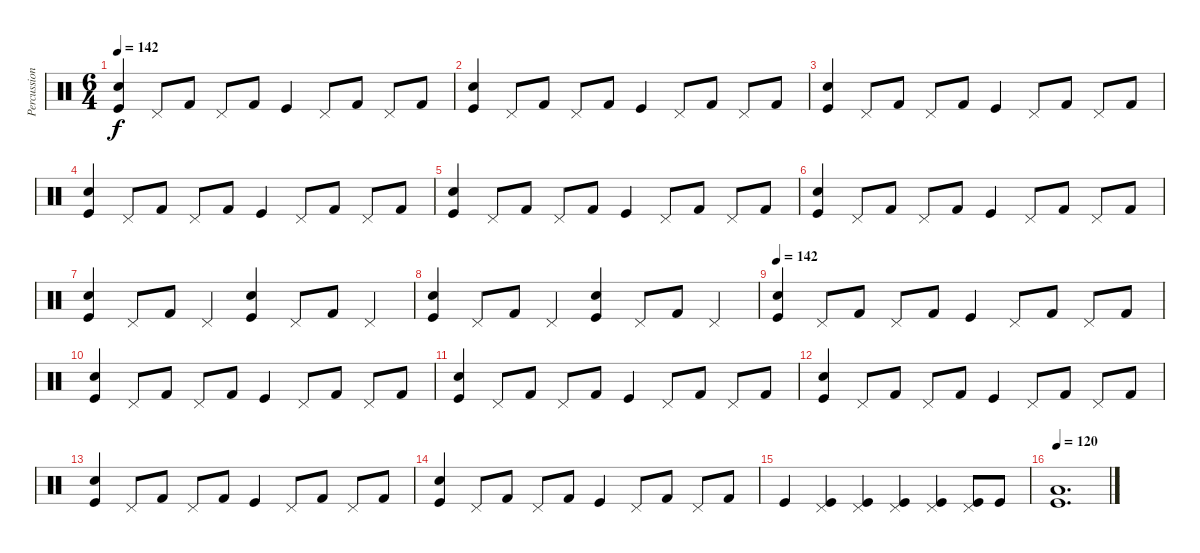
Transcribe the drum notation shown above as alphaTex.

\track ("Percussion" "Percussion") {instrument percussion}
\staff {score}
\articulation defaults
\ts (6 4)
\tempo 142
\clef neutral
\ks c
("Kick (hit)" "Snare (hit) 2").4{dy f} "Pedal Hi-Hat (hit)".8 "Kick (hit) 2".8 "Pedal Hi-Hat (hit)".8 "Kick (hit) 2".8 "Kick (hit)".4 "Pedal Hi-Hat (hit)".8 "Kick (hit) 2".8 "Pedal Hi-Hat (hit)".8 "Kick (hit) 2".8 |
("Kick (hit)" "Snare (hit) 2").4 "Pedal Hi-Hat (hit)".8 "Kick (hit) 2".8 "Pedal Hi-Hat (hit)".8 "Kick (hit) 2".8 "Kick (hit)".4 "Pedal Hi-Hat (hit)".8 "Kick (hit) 2".8 "Pedal Hi-Hat (hit)".8 "Kick (hit) 2".8 |
("Kick (hit)" "Snare (hit) 2").4 "Pedal Hi-Hat (hit)".8 "Kick (hit) 2".8 "Pedal Hi-Hat (hit)".8 "Kick (hit) 2".8 "Kick (hit)".4 "Pedal Hi-Hat (hit)".8 "Kick (hit) 2".8 "Pedal Hi-Hat (hit)".8 "Kick (hit) 2".8 |
("Kick (hit)" "Snare (hit) 2").4 "Pedal Hi-Hat (hit)".8 "Kick (hit) 2".8 "Pedal Hi-Hat (hit)".8 "Kick (hit) 2".8 "Kick (hit)".4 "Pedal Hi-Hat (hit)".8 "Kick (hit) 2".8 "Pedal Hi-Hat (hit)".8 "Kick (hit) 2".8 |
("Kick (hit)" "Snare (hit) 2").4 "Pedal Hi-Hat (hit)".8 "Kick (hit) 2".8 "Pedal Hi-Hat (hit)".8 "Kick (hit) 2".8 "Kick (hit)".4 "Pedal Hi-Hat (hit)".8 "Kick (hit) 2".8 "Pedal Hi-Hat (hit)".8 "Kick (hit) 2".8 |
("Kick (hit)" "Snare (hit) 2").4 "Pedal Hi-Hat (hit)".8 "Kick (hit) 2".8 "Pedal Hi-Hat (hit)".8 "Kick (hit) 2".8 "Kick (hit)".4 "Pedal Hi-Hat (hit)".8 "Kick (hit) 2".8 "Pedal Hi-Hat (hit)".8 "Kick (hit) 2".8 |
("Kick (hit)" "Snare (hit) 2").4 "Pedal Hi-Hat (hit)".8 "Kick (hit) 2".8 "Pedal Hi-Hat (hit)".4 ("Kick (hit)" "Snare (hit) 2").4 "Pedal Hi-Hat (hit)".8 "Kick (hit) 2".8 "Pedal Hi-Hat (hit)".4 |
("Kick (hit)" "Snare (hit) 2").4 "Pedal Hi-Hat (hit)".8 "Kick (hit) 2".8 "Pedal Hi-Hat (hit)".4 ("Kick (hit)" "Snare (hit) 2").4 "Pedal Hi-Hat (hit)".8 "Kick (hit) 2".8 "Pedal Hi-Hat (hit)".4 |
\tempo 142
("Kick (hit)" "Snare (hit) 2").4 "Pedal Hi-Hat (hit)".8 "Kick (hit) 2".8 "Pedal Hi-Hat (hit)".8 "Kick (hit) 2".8 "Kick (hit)".4 "Pedal Hi-Hat (hit)".8 "Kick (hit) 2".8 "Pedal Hi-Hat (hit)".8 "Kick (hit) 2".8 |
("Kick (hit)" "Snare (hit) 2").4 "Pedal Hi-Hat (hit)".8 "Kick (hit) 2".8 "Pedal Hi-Hat (hit)".8 "Kick (hit) 2".8 "Kick (hit)".4 "Pedal Hi-Hat (hit)".8 "Kick (hit) 2".8 "Pedal Hi-Hat (hit)".8 "Kick (hit) 2".8 |
("Kick (hit)" "Snare (hit) 2").4 "Pedal Hi-Hat (hit)".8 "Kick (hit) 2".8 "Pedal Hi-Hat (hit)".8 "Kick (hit) 2".8 "Kick (hit)".4 "Pedal Hi-Hat (hit)".8 "Kick (hit) 2".8 "Pedal Hi-Hat (hit)".8 "Kick (hit) 2".8 |
("Kick (hit)" "Snare (hit) 2").4 "Pedal Hi-Hat (hit)".8 "Kick (hit) 2".8 "Pedal Hi-Hat (hit)".8 "Kick (hit) 2".8 "Kick (hit)".4 "Pedal Hi-Hat (hit)".8 "Kick (hit) 2".8 "Pedal Hi-Hat (hit)".8 "Kick (hit) 2".8 |
("Kick (hit)" "Snare (hit) 2").4 "Pedal Hi-Hat (hit)".8 "Kick (hit) 2".8 "Pedal Hi-Hat (hit)".8 "Kick (hit) 2".8 "Kick (hit)".4 "Pedal Hi-Hat (hit)".8 "Kick (hit) 2".8 "Pedal Hi-Hat (hit)".8 "Kick (hit) 2".8 |
("Kick (hit)" "Snare (hit) 2").4 "Pedal Hi-Hat (hit)".8 "Kick (hit) 2".8 "Pedal Hi-Hat (hit)".8 "Kick (hit) 2".8 "Kick (hit)".4 "Pedal Hi-Hat (hit)".8 "Kick (hit) 2".8 "Pedal Hi-Hat (hit)".8 "Kick (hit) 2".8 |
"Kick (hit)".4 ("Kick (hit)" "Pedal Hi-Hat (hit)").4 ("Kick (hit)" "Pedal Hi-Hat (hit)").4 ("Kick (hit)" "Pedal Hi-Hat (hit)").4 ("Kick (hit)" "Pedal Hi-Hat (hit)").4 ("Kick (hit)" "Pedal Hi-Hat (hit)").8 "Kick (hit)".8 |
\tempo 120
("Kick (hit)" "Low Floor Tom (hit)").1{d}
